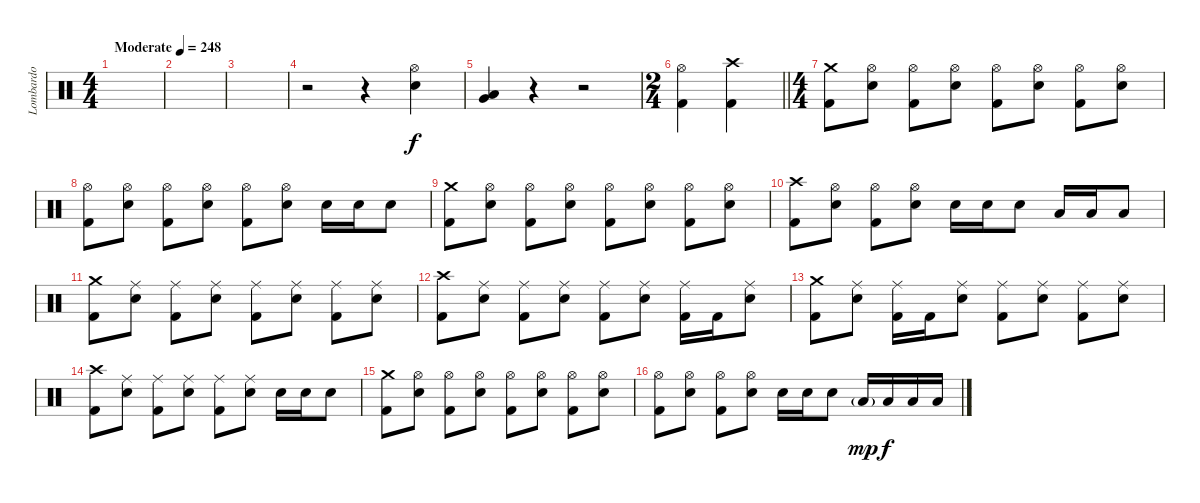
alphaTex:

\track ("Lombardo" "Lombardo") {instrument percussion}
\staff {score}
\articulation defaults
\ts (4 4)
\tempo (248 "Moderate")
\clef neutral
\ks c
|
|
|
r.2 r.4 ("Hi-Hat (open)" "Snare (hit) 2").4 |
("Low Tom (hit)" "Very Low Tom (hit)").4 r.4 r.2 |
\ts (2 4)
\barLineRight lightlight
("Hi-Hat (open)" "Kick (hit) 2").4 ("Crash high (hit)" "Kick (hit) 2").4 |
\ts (4 4)
("Crash medium (hit)" "Kick (hit) 2").8 ("Hi-Hat (open)" "Snare (hit) 2").8 ("Hi-Hat (open)" "Kick (hit) 2").8 ("Hi-Hat (open)" "Snare (hit) 2").8 ("Hi-Hat (open)" "Kick (hit) 2").8 ("Hi-Hat (open)" "Snare (hit) 2").8 ("Hi-Hat (open)" "Kick (hit) 2").8 ("Hi-Hat (open)" "Snare (hit) 2").8 |
("Hi-Hat (open)" "Kick (hit) 2").8 ("Hi-Hat (open)" "Snare (hit) 2").8 ("Hi-Hat (open)" "Kick (hit) 2").8 ("Hi-Hat (open)" "Snare (hit) 2").8 ("Hi-Hat (open)" "Kick (hit) 2").8 ("Hi-Hat (open)" "Snare (hit) 2").8 "Snare (hit) 2".16 "Snare (hit) 2".16 "Snare (hit) 2".8 |
("Crash medium (hit)" "Kick (hit) 2").8 ("Hi-Hat (open)" "Snare (hit) 2").8 ("Hi-Hat (open)" "Kick (hit) 2").8 ("Hi-Hat (open)" "Snare (hit) 2").8 ("Hi-Hat (open)" "Kick (hit) 2").8 ("Hi-Hat (open)" "Snare (hit) 2").8 ("Hi-Hat (open)" "Kick (hit) 2").8 ("Hi-Hat (open)" "Snare (hit) 2").8 |
("Crash high (hit)" "Kick (hit) 2").8 ("Hi-Hat (open)" "Snare (hit) 2").8 ("Hi-Hat (open)" "Kick (hit) 2").8 ("Hi-Hat (open)" "Snare (hit) 2").8 "Snare (hit) 2".16 "Snare (hit) 2".16 "Snare (hit) 2".8 "Low Tom (hit)".16 "Low Tom (hit)".16 "Low Tom (hit)".8 |
("Crash medium (hit)" "Kick (hit) 2").8 ("Ride (middle)" "Snare (hit) 2").8 ("Ride (middle)" "Kick (hit) 2").8 ("Ride (middle)" "Snare (hit) 2").8 ("Ride (middle)" "Kick (hit) 2").8 ("Ride (middle)" "Snare (hit) 2").8 ("Ride (middle)" "Kick (hit) 2").8 ("Ride (middle)" "Snare (hit) 2").8 |
("Crash high (hit)" "Kick (hit) 2").8 ("Ride (middle)" "Snare (hit) 2").8 ("Ride (middle)" "Kick (hit) 2").8 ("Ride (middle)" "Snare (hit) 2").8 ("Ride (middle)" "Kick (hit) 2").8 ("Ride (middle)" "Snare (hit) 2").8 ("Ride (middle)" "Kick (hit) 2").16 "Kick (hit) 2".16 ("Ride (middle)" "Snare (hit) 2").8 |
("Crash medium (hit)" "Kick (hit) 2").8 ("Ride (middle)" "Snare (hit) 2").8 ("Ride (middle)" "Kick (hit) 2").16 "Kick (hit) 2".16 ("Ride (middle)" "Snare (hit) 2").8 ("Ride (middle)" "Kick (hit) 2").8 ("Ride (middle)" "Snare (hit) 2").8 ("Ride (middle)" "Kick (hit) 2").8 ("Ride (middle)" "Snare (hit) 2").8 |
("Crash high (hit)" "Kick (hit) 2").8 ("Ride (middle)" "Snare (hit) 2").8 ("Ride (middle)" "Kick (hit) 2").8 ("Ride (middle)" "Snare (hit) 2").8 ("Ride (middle)" "Kick (hit) 2").8 ("Ride (middle)" "Snare (hit) 2").8 "Snare (hit) 2".16 "Snare (hit) 2".16 "Snare (hit) 2".8 |
("Crash medium (hit)" "Kick (hit) 2").8 ("Hi-Hat (open)" "Snare (hit) 2").8 ("Hi-Hat (open)" "Kick (hit) 2").8 ("Hi-Hat (open)" "Snare (hit) 2").8 ("Hi-Hat (open)" "Kick (hit) 2").8 ("Hi-Hat (open)" "Snare (hit) 2").8 ("Hi-Hat (open)" "Kick (hit) 2").8 ("Hi-Hat (open)" "Snare (hit) 2").8 |
("Hi-Hat (open)" "Kick (hit) 2").8 ("Hi-Hat (open)" "Snare (hit) 2").8 ("Hi-Hat (open)" "Kick (hit) 2").8 ("Hi-Hat (open)" "Snare (hit) 2").8 "Snare (hit) 2".16 "Snare (hit) 2".16 "Snare (hit) 2".8 "Low Tom (hit)"{g}.16{dy mp} "Low Tom (hit)".16{dy f} "Low Tom (hit)".16 "Low Tom (hit)".16
